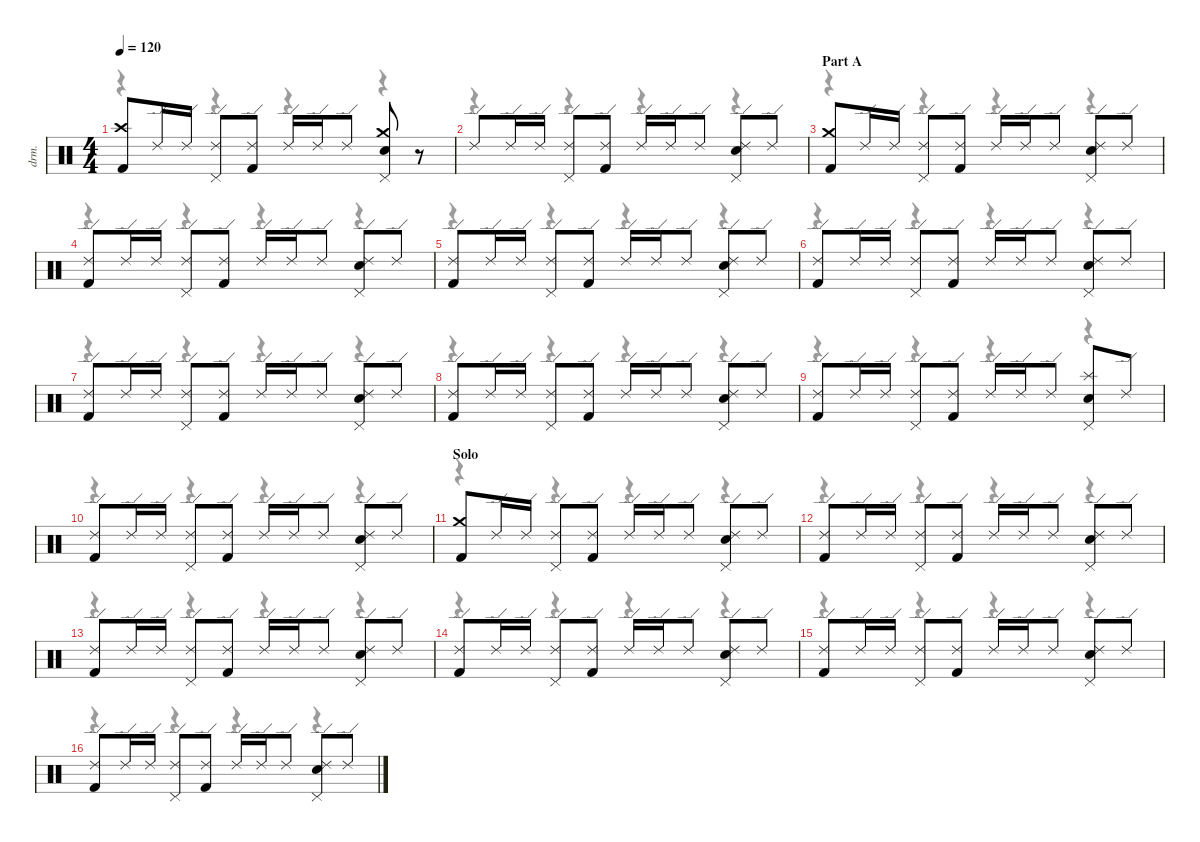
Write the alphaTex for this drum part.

\defaultSystemsLayout 4
\hideDynamics
\bracketExtendMode nobrackets
\otherSystemsTrackNameOrientation horizontal
\track ("Percussion" "drm.") {instrument percussion}
\staff {score}
\articulation defaults
\voice
\ts (4 4)
\tempo 120
\clef neutral
\ks c
("Crash high (hit)" "Kick (hit) 2").8{dy f} "Ride (edge) 2".16 "Ride (edge) 2".16 ("Ride (edge) 2" "Pedal Hi-Hat (hit)").8 ("Ride (edge) 2" "Kick (hit) 2").8 "Ride (edge) 2".16 "Ride (edge) 2".16 "Ride (edge) 2".8 ("Crash medium (hit)" "Pedal Hi-Hat (hit)" "Snare (hit) 2").8 r.8 |
"Ride (edge) 2".8 "Ride (edge) 2".16 "Ride (edge) 2".16 ("Ride (edge) 2" "Pedal Hi-Hat (hit)").8 ("Ride (edge) 2" "Kick (hit) 2").8 "Ride (edge) 2".16 "Ride (edge) 2".16 "Ride (edge) 2".8 ("Ride (edge) 2" "Pedal Hi-Hat (hit)" "Snare (hit) 2").8 "Ride (edge) 2".8 |
\section ("" "Part A")
("Crash medium (hit)" "Kick (hit) 2").8 "Ride (edge) 2".16 "Ride (edge) 2".16 ("Ride (edge) 2" "Pedal Hi-Hat (hit)").8 ("Ride (edge) 2" "Kick (hit) 2").8 "Ride (edge) 2".16 "Ride (edge) 2".16 "Ride (edge) 2".8 ("Ride (edge) 2" "Pedal Hi-Hat (hit)" "Snare (hit) 2").8 "Ride (edge) 2".8 |
("Ride (edge) 2" "Kick (hit) 2").8 "Ride (edge) 2".16 "Ride (edge) 2".16 ("Ride (edge) 2" "Pedal Hi-Hat (hit)").8 ("Ride (edge) 2" "Kick (hit) 2").8 "Ride (edge) 2".16 "Ride (edge) 2".16 "Ride (edge) 2".8 ("Ride (edge) 2" "Pedal Hi-Hat (hit)" "Snare (hit) 2").8 "Ride (edge) 2".8 |
("Ride (edge) 2" "Kick (hit) 2").8 "Ride (edge) 2".16 "Ride (edge) 2".16 ("Ride (edge) 2" "Pedal Hi-Hat (hit)").8 ("Ride (edge) 2" "Kick (hit) 2").8 "Ride (edge) 2".16 "Ride (edge) 2".16 "Ride (edge) 2".8 ("Ride (edge) 2" "Pedal Hi-Hat (hit)" "Snare (hit) 2").8 "Ride (edge) 2".8 |
("Ride (edge) 2" "Kick (hit) 2").8 "Ride (edge) 2".16 "Ride (edge) 2".16 ("Ride (edge) 2" "Pedal Hi-Hat (hit)").8 ("Ride (edge) 2" "Kick (hit) 2").8 "Ride (edge) 2".16 "Ride (edge) 2".16 "Ride (edge) 2".8 ("Ride (edge) 2" "Pedal Hi-Hat (hit)" "Snare (hit) 2").8 "Ride (edge) 2".8 |
("Ride (edge) 2" "Kick (hit) 2").8 "Ride (edge) 2".16 "Ride (edge) 2".16 ("Ride (edge) 2" "Pedal Hi-Hat (hit)").8 ("Ride (edge) 2" "Kick (hit) 2").8 "Ride (edge) 2".16 "Ride (edge) 2".16 "Ride (edge) 2".8 ("Ride (edge) 2" "Pedal Hi-Hat (hit)" "Snare (hit) 2").8 "Ride (edge) 2".8 |
("Ride (edge) 2" "Kick (hit) 2").8 "Ride (edge) 2".16 "Ride (edge) 2".16 ("Ride (edge) 2" "Pedal Hi-Hat (hit)").8 ("Ride (edge) 2" "Kick (hit) 2").8 "Ride (edge) 2".16 "Ride (edge) 2".16 "Ride (edge) 2".8 ("Ride (edge) 2" "Pedal Hi-Hat (hit)" "Snare (hit) 2").8 "Ride (edge) 2".8 |
("Ride (edge) 2" "Kick (hit) 2").8 "Ride (edge) 2".16 "Ride (edge) 2".16 ("Ride (edge) 2" "Pedal Hi-Hat (hit)").8 ("Ride (edge) 2" "Kick (hit) 2").8 "Ride (edge) 2".16 "Ride (edge) 2".16 "Ride (edge) 2".8 ("Splash (hit)" "Pedal Hi-Hat (hit)" "Snare (hit) 2").8 "Ride (edge) 2".8 |
("Ride (edge) 2" "Kick (hit) 2").8 "Ride (edge) 2".16 "Ride (edge) 2".16 ("Ride (edge) 2" "Pedal Hi-Hat (hit)").8 ("Ride (edge) 2" "Kick (hit) 2").8 "Ride (edge) 2".16 "Ride (edge) 2".16 "Ride (edge) 2".8 ("Ride (edge) 2" "Pedal Hi-Hat (hit)" "Snare (hit) 2").8 "Ride (edge) 2".8 |
\section ("" "Solo")
("Crash medium (hit)" "Kick (hit) 2").8 "Ride (edge) 2".16 "Ride (edge) 2".16 ("Ride (edge) 2" "Pedal Hi-Hat (hit)").8 ("Ride (edge) 2" "Kick (hit) 2").8 "Ride (edge) 2".16 "Ride (edge) 2".16 "Ride (edge) 2".8 ("Ride (edge) 2" "Pedal Hi-Hat (hit)" "Snare (hit) 2").8 "Ride (edge) 2".8 |
("Ride (edge) 2" "Kick (hit) 2").8 "Ride (edge) 2".16 "Ride (edge) 2".16 ("Ride (edge) 2" "Pedal Hi-Hat (hit)").8 ("Ride (edge) 2" "Kick (hit) 2").8 "Ride (edge) 2".16 "Ride (edge) 2".16 "Ride (edge) 2".8 ("Ride (edge) 2" "Pedal Hi-Hat (hit)" "Snare (hit) 2").8 "Ride (edge) 2".8 |
("Ride (edge) 2" "Kick (hit) 2").8 "Ride (edge) 2".16 "Ride (edge) 2".16 ("Ride (edge) 2" "Pedal Hi-Hat (hit)").8 ("Ride (edge) 2" "Kick (hit) 2").8 "Ride (edge) 2".16 "Ride (edge) 2".16 "Ride (edge) 2".8 ("Ride (edge) 2" "Pedal Hi-Hat (hit)" "Snare (hit) 2").8 "Ride (edge) 2".8 |
("Ride (edge) 2" "Kick (hit) 2").8 "Ride (edge) 2".16 "Ride (edge) 2".16 ("Ride (edge) 2" "Pedal Hi-Hat (hit)").8 ("Ride (edge) 2" "Kick (hit) 2").8 "Ride (edge) 2".16 "Ride (edge) 2".16 "Ride (edge) 2".8 ("Ride (edge) 2" "Pedal Hi-Hat (hit)" "Snare (hit) 2").8 "Ride (edge) 2".8 |
("Ride (edge) 2" "Kick (hit) 2").8 "Ride (edge) 2".16 "Ride (edge) 2".16 ("Ride (edge) 2" "Pedal Hi-Hat (hit)").8 ("Ride (edge) 2" "Kick (hit) 2").8 "Ride (edge) 2".16 "Ride (edge) 2".16 "Ride (edge) 2".8 ("Ride (edge) 2" "Pedal Hi-Hat (hit)" "Snare (hit) 2").8 "Ride (edge) 2".8 |
("Ride (edge) 2" "Kick (hit) 2").8 "Ride (edge) 2".16 "Ride (edge) 2".16 ("Ride (edge) 2" "Pedal Hi-Hat (hit)").8 ("Ride (edge) 2" "Kick (hit) 2").8 "Ride (edge) 2".16 "Ride (edge) 2".16 "Ride (edge) 2".8 ("Ride (edge) 2" "Pedal Hi-Hat (hit)" "Snare (hit) 2").8 "Ride (edge) 2".8
\voice
\clef neutral
\ottava regular
\simile none
\ks c
r.4{dy mf} r.4 r.4 r.4 |
r.4 r.4 r.4 r.4 |
r.4 r.4 r.4 r.4 |
r.4 r.4 r.4 r.4 |
r.4 r.4 r.4 r.4 |
r.4 r.4 r.4 r.4 |
r.4 r.4 r.4 r.4 |
r.4 r.4 r.4 r.4 |
r.4 r.4 r.4 r.4 |
r.4 r.4 r.4 r.4 |
r.4 r.4 r.4 r.4 |
r.4 r.4 r.4 r.4 |
r.4 r.4 r.4 r.4 |
r.4 r.4 r.4 r.4 |
r.4 r.4 r.4 r.4 |
r.4 r.4 r.4 r.4
